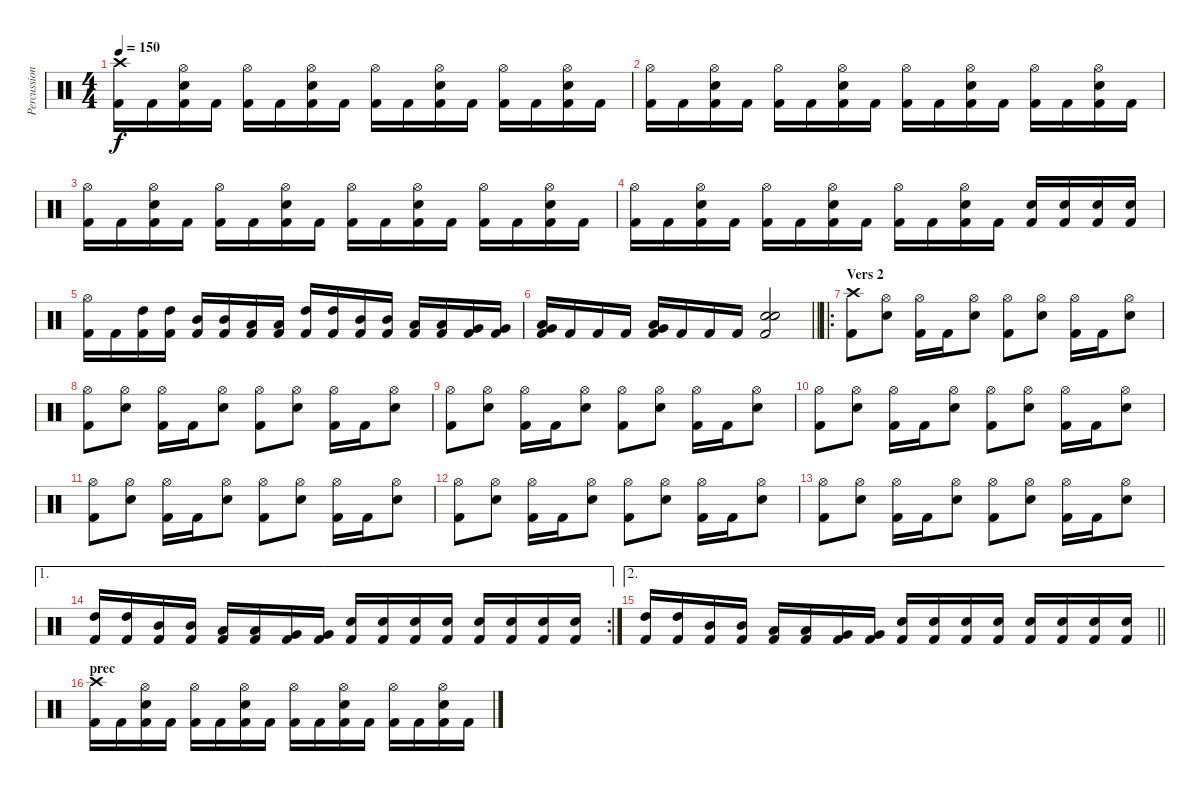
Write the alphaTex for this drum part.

\track ("Percussion" "Percussion") {instrument percussion}
\staff {score}
\articulation defaults
\ts (4 4)
\tempo 150
\clef neutral
\ks c
("Crash high (hit)" "Kick (hit) 2").16{dy f} "Kick (hit) 2".16 ("Hi-Hat (open)" "Snare (hit) 2" "Kick (hit) 2").16 "Kick (hit) 2".16 ("Hi-Hat (open)" "Kick (hit) 2").16 "Kick (hit) 2".16 ("Hi-Hat (open)" "Snare (hit) 2" "Kick (hit) 2").16 "Kick (hit) 2".16 ("Hi-Hat (open)" "Kick (hit) 2").16 "Kick (hit) 2".16 ("Hi-Hat (open)" "Snare (hit) 2" "Kick (hit) 2").16 "Kick (hit) 2".16 ("Hi-Hat (open)" "Kick (hit) 2").16 "Kick (hit) 2".16 ("Hi-Hat (open)" "Snare (hit) 2" "Kick (hit) 2").16 "Kick (hit) 2".16 |
("Hi-Hat (open)" "Kick (hit) 2").16 "Kick (hit) 2".16 ("Hi-Hat (open)" "Snare (hit) 2" "Kick (hit) 2").16 "Kick (hit) 2".16 ("Hi-Hat (open)" "Kick (hit) 2").16 "Kick (hit) 2".16 ("Hi-Hat (open)" "Snare (hit) 2" "Kick (hit) 2").16 "Kick (hit) 2".16 ("Hi-Hat (open)" "Kick (hit) 2").16 "Kick (hit) 2".16 ("Hi-Hat (open)" "Snare (hit) 2" "Kick (hit) 2").16 "Kick (hit) 2".16 ("Hi-Hat (open)" "Kick (hit) 2").16 "Kick (hit) 2".16 ("Hi-Hat (open)" "Snare (hit) 2" "Kick (hit) 2").16 "Kick (hit) 2".16 |
("Hi-Hat (open)" "Kick (hit) 2").16 "Kick (hit) 2".16 ("Hi-Hat (open)" "Snare (hit) 2" "Kick (hit) 2").16 "Kick (hit) 2".16 ("Hi-Hat (open)" "Kick (hit) 2").16 "Kick (hit) 2".16 ("Hi-Hat (open)" "Snare (hit) 2" "Kick (hit) 2").16 "Kick (hit) 2".16 ("Hi-Hat (open)" "Kick (hit) 2").16 "Kick (hit) 2".16 ("Hi-Hat (open)" "Snare (hit) 2" "Kick (hit) 2").16 "Kick (hit) 2".16 ("Hi-Hat (open)" "Kick (hit) 2").16 "Kick (hit) 2".16 ("Hi-Hat (open)" "Snare (hit) 2" "Kick (hit) 2").16 "Kick (hit) 2".16 |
("Hi-Hat (open)" "Kick (hit) 2").16 "Kick (hit) 2".16 ("Hi-Hat (open)" "Snare (hit) 2" "Kick (hit) 2").16 "Kick (hit) 2".16 ("Hi-Hat (open)" "Kick (hit) 2").16 "Kick (hit) 2".16 ("Hi-Hat (open)" "Snare (hit) 2" "Kick (hit) 2").16 "Kick (hit) 2".16 ("Hi-Hat (open)" "Kick (hit) 2").16 "Kick (hit) 2".16 ("Hi-Hat (open)" "Snare (hit) 2" "Kick (hit) 2").16 "Kick (hit) 2".16 ("Snare (hit) 2" "Kick (hit) 2").16 ("Snare (hit) 2" "Kick (hit) 2").16 ("Snare (hit) 2" "Kick (hit) 2").16 ("Snare (hit) 2" "Kick (hit) 2").16 |
("Hi-Hat (open)" "Kick (hit) 2").16 "Kick (hit) 2".16 ("High Tom (hit)" "Kick (hit) 2").16 ("High Tom (hit)" "Kick (hit) 2").16 ("Mid Tom (hit)" "Kick (hit) 2").16 ("Mid Tom (hit)" "Kick (hit) 2").16 ("Low Tom (hit)" "Kick (hit) 2").16 ("Low Tom (hit)" "Kick (hit) 2").16 ("High Tom (hit)" "Kick (hit) 2").16 ("High Tom (hit)" "Kick (hit) 2").16 ("Mid Tom (hit)" "Kick (hit) 2").16 ("Mid Tom (hit)" "Kick (hit) 2").16 ("Low Tom (hit)" "Kick (hit) 2").16 ("Low Tom (hit)" "Kick (hit) 2").16 ("Very Low Tom (hit)" "Kick (hit) 2").16 ("Very Low Tom (hit)" "Kick (hit) 2").16 |
\barLineRight lightlight
("Low Floor Tom (hit)" "Very Low Tom (hit)" "Kick (hit) 2").16 "Kick (hit) 2".16 "Kick (hit) 2".16 "Kick (hit) 2".16 ("Low Floor Tom (hit)" "Very Low Tom (hit)" "Kick (hit) 2").16 "Kick (hit) 2".16 "Kick (hit) 2".16 "Kick (hit) 2".16 ("Snare (hit) 2" "Snare (hit) 2" "Kick (hit) 2").2 |
\ro
\section ("" "Vers 2")
("Crash high (hit)" "Kick (hit) 2").8 ("Hi-Hat (open)" "Snare (hit) 2").8 ("Hi-Hat (open)" "Kick (hit) 2").16 "Kick (hit) 2".16 ("Hi-Hat (open)" "Snare (hit) 2").8 ("Hi-Hat (open)" "Kick (hit) 2").8 ("Hi-Hat (open)" "Snare (hit) 2").8 ("Hi-Hat (open)" "Kick (hit) 2").16 "Kick (hit) 2".16 ("Hi-Hat (open)" "Snare (hit) 2").8 |
("Hi-Hat (open)" "Kick (hit) 2").8 ("Hi-Hat (open)" "Snare (hit) 2").8 ("Hi-Hat (open)" "Kick (hit) 2").16 "Kick (hit) 2".16 ("Hi-Hat (open)" "Snare (hit) 2").8 ("Hi-Hat (open)" "Kick (hit) 2").8 ("Hi-Hat (open)" "Snare (hit) 2").8 ("Hi-Hat (open)" "Kick (hit) 2").16 "Kick (hit) 2".16 ("Hi-Hat (open)" "Snare (hit) 2").8 |
("Hi-Hat (open)" "Kick (hit) 2").8 ("Hi-Hat (open)" "Snare (hit) 2").8 ("Hi-Hat (open)" "Kick (hit) 2").16 "Kick (hit) 2".16 ("Hi-Hat (open)" "Snare (hit) 2").8 ("Hi-Hat (open)" "Kick (hit) 2").8 ("Hi-Hat (open)" "Snare (hit) 2").8 ("Hi-Hat (open)" "Kick (hit) 2").16 "Kick (hit) 2".16 ("Hi-Hat (open)" "Snare (hit) 2").8 |
("Hi-Hat (open)" "Kick (hit) 2").8 ("Hi-Hat (open)" "Snare (hit) 2").8 ("Hi-Hat (open)" "Kick (hit) 2").16 "Kick (hit) 2".16 ("Hi-Hat (open)" "Snare (hit) 2").8 ("Hi-Hat (open)" "Kick (hit) 2").8 ("Hi-Hat (open)" "Snare (hit) 2").8 ("Hi-Hat (open)" "Kick (hit) 2").16 "Kick (hit) 2".16 ("Hi-Hat (open)" "Snare (hit) 2").8 |
("Hi-Hat (open)" "Kick (hit) 2").8 ("Hi-Hat (open)" "Snare (hit) 2").8 ("Hi-Hat (open)" "Kick (hit) 2").16 "Kick (hit) 2".16 ("Hi-Hat (open)" "Snare (hit) 2").8 ("Hi-Hat (open)" "Kick (hit) 2").8 ("Hi-Hat (open)" "Snare (hit) 2").8 ("Hi-Hat (open)" "Kick (hit) 2").16 "Kick (hit) 2".16 ("Hi-Hat (open)" "Snare (hit) 2").8 |
("Hi-Hat (open)" "Kick (hit) 2").8 ("Hi-Hat (open)" "Snare (hit) 2").8 ("Hi-Hat (open)" "Kick (hit) 2").16 "Kick (hit) 2".16 ("Hi-Hat (open)" "Snare (hit) 2").8 ("Hi-Hat (open)" "Kick (hit) 2").8 ("Hi-Hat (open)" "Snare (hit) 2").8 ("Hi-Hat (open)" "Kick (hit) 2").16 "Kick (hit) 2".16 ("Hi-Hat (open)" "Snare (hit) 2").8 |
("Hi-Hat (open)" "Kick (hit) 2").8 ("Hi-Hat (open)" "Snare (hit) 2").8 ("Hi-Hat (open)" "Kick (hit) 2").16 "Kick (hit) 2".16 ("Hi-Hat (open)" "Snare (hit) 2").8 ("Hi-Hat (open)" "Kick (hit) 2").8 ("Hi-Hat (open)" "Snare (hit) 2").8 ("Hi-Hat (open)" "Kick (hit) 2").16 "Kick (hit) 2".16 ("Hi-Hat (open)" "Snare (hit) 2").8 |
\ae 1
\rc 2
("High Tom (hit)" "Kick (hit) 2").16 ("High Tom (hit)" "Kick (hit) 2").16 ("Mid Tom (hit)" "Kick (hit) 2").16 ("Mid Tom (hit)" "Kick (hit) 2").16 ("Low Tom (hit)" "Kick (hit) 2").16 ("Low Tom (hit)" "Kick (hit) 2").16 ("Very Low Tom (hit)" "Kick (hit) 2").16 ("Very Low Tom (hit)" "Kick (hit) 2").16 ("Snare (hit) 2" "Kick (hit) 2").16 ("Snare (hit) 2" "Kick (hit) 2").16 ("Snare (hit) 2" "Kick (hit) 2").16 ("Snare (hit) 2" "Kick (hit) 2").16 ("Snare (hit) 2" "Kick (hit) 2").16 ("Snare (hit) 2" "Kick (hit) 2").16 ("Snare (hit) 2" "Kick (hit) 2").16 ("Snare (hit) 2" "Kick (hit) 2").16 |
\ae 2
\barLineRight lightlight
("High Tom (hit)" "Kick (hit) 2").16 ("High Tom (hit)" "Kick (hit) 2").16 ("Mid Tom (hit)" "Kick (hit) 2").16 ("Mid Tom (hit)" "Kick (hit) 2").16 ("Low Tom (hit)" "Kick (hit) 2").16 ("Low Tom (hit)" "Kick (hit) 2").16 ("Very Low Tom (hit)" "Kick (hit) 2").16 ("Very Low Tom (hit)" "Kick (hit) 2").16 ("Snare (hit) 2" "Kick (hit) 2").16 ("Snare (hit) 2" "Kick (hit) 2").16 ("Snare (hit) 2" "Kick (hit) 2").16 ("Snare (hit) 2" "Kick (hit) 2").16 ("Snare (hit) 2" "Kick (hit) 2").16 ("Snare (hit) 2" "Kick (hit) 2").16 ("Snare (hit) 2" "Kick (hit) 2").16 ("Snare (hit) 2" "Kick (hit) 2").16 |
\section ("" "prec")
("Crash high (hit)" "Kick (hit) 2").16 "Kick (hit) 2".16 ("Hi-Hat (open)" "Snare (hit) 2" "Kick (hit) 2").16 "Kick (hit) 2".16 ("Hi-Hat (open)" "Kick (hit) 2").16 "Kick (hit) 2".16 ("Hi-Hat (open)" "Snare (hit) 2" "Kick (hit) 2").16 "Kick (hit) 2".16 ("Hi-Hat (open)" "Kick (hit) 2").16 "Kick (hit) 2".16 ("Hi-Hat (open)" "Snare (hit) 2" "Kick (hit) 2").16 "Kick (hit) 2".16 ("Hi-Hat (open)" "Kick (hit) 2").16 "Kick (hit) 2".16 ("Hi-Hat (open)" "Snare (hit) 2" "Kick (hit) 2").16 "Kick (hit) 2".16
